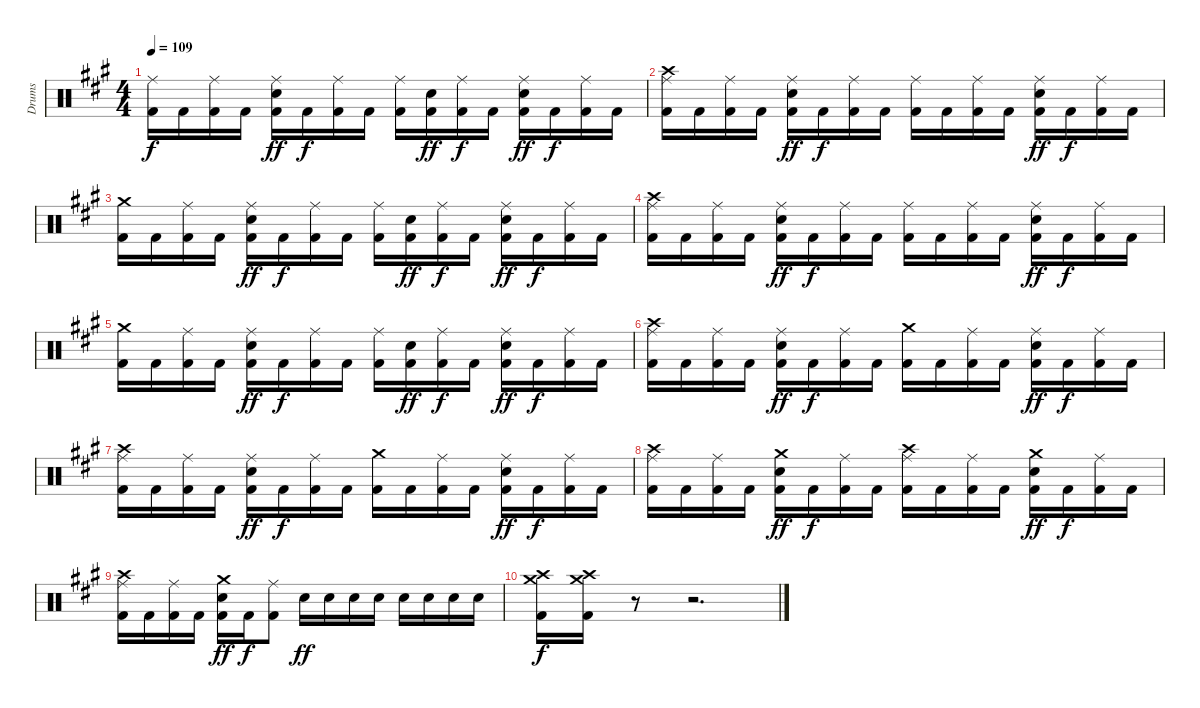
\track ("Drums" "Drums") {instrument percussion}
\staff {score}
\articulation defaults
\ts (4 4)
\tempo 109
\clef neutral
\ks f#minor
("Ride (middle)" "Kick (hit) 2").16{dy f} "Kick (hit) 2".16 ("Ride (middle)" "Kick (hit) 2").16 "Kick (hit) 2".16 ("Ride (middle)" "Electric Snare (hit)" "Kick (hit) 2").16{dy ff} "Kick (hit) 2".16{dy f} ("Ride (middle)" "Kick (hit) 2").16 "Kick (hit) 2".16 ("Ride (middle)" "Kick (hit) 2").16 ("Electric Snare (hit)" "Kick (hit) 2").16{dy ff} ("Ride (middle)" "Kick (hit) 2").16{dy f} "Kick (hit) 2".16 ("Ride (middle)" "Electric Snare (hit)" "Kick (hit) 2").16{dy ff} "Kick (hit) 2".16{dy f} ("Ride (middle)" "Kick (hit) 2").16 "Kick (hit) 2".16 |
("Ride (middle)" "Crash high (hit)" "Kick (hit) 2").16 "Kick (hit) 2".16 ("Ride (middle)" "Kick (hit) 2").16 "Kick (hit) 2".16 ("Ride (middle)" "Electric Snare (hit)" "Kick (hit) 2").16{dy ff} "Kick (hit) 2".16{dy f} ("Ride (middle)" "Kick (hit) 2").16 "Kick (hit) 2".16 ("Ride (middle)" "Kick (hit) 2").16 "Kick (hit) 2".16 ("Ride (middle)" "Kick (hit) 2").16 "Kick (hit) 2".16 ("Ride (middle)" "Electric Snare (hit)" "Kick (hit) 2").16{dy ff} "Kick (hit) 2".16{dy f} ("Ride (middle)" "Kick (hit) 2").16 "Kick (hit) 2".16 |
("Crash medium (hit)" "Kick (hit) 2").16 "Kick (hit) 2".16 ("Ride (middle)" "Kick (hit) 2").16 "Kick (hit) 2".16 ("Ride (middle)" "Electric Snare (hit)" "Kick (hit) 2").16{dy ff} "Kick (hit) 2".16{dy f} ("Ride (middle)" "Kick (hit) 2").16 "Kick (hit) 2".16 ("Ride (middle)" "Kick (hit) 2").16 ("Electric Snare (hit)" "Kick (hit) 2").16{dy ff} ("Ride (middle)" "Kick (hit) 2").16{dy f} "Kick (hit) 2".16 ("Ride (middle)" "Electric Snare (hit)" "Kick (hit) 2").16{dy ff} "Kick (hit) 2".16{dy f} ("Ride (middle)" "Kick (hit) 2").16 "Kick (hit) 2".16 |
("Ride (middle)" "Crash high (hit)" "Kick (hit) 2").16 "Kick (hit) 2".16 ("Ride (middle)" "Kick (hit) 2").16 "Kick (hit) 2".16 ("Ride (middle)" "Electric Snare (hit)" "Kick (hit) 2").16{dy ff} "Kick (hit) 2".16{dy f} ("Ride (middle)" "Kick (hit) 2").16 "Kick (hit) 2".16 ("Ride (middle)" "Kick (hit) 2").16 "Kick (hit) 2".16 ("Ride (middle)" "Kick (hit) 2").16 "Kick (hit) 2".16 ("Ride (middle)" "Electric Snare (hit)" "Kick (hit) 2").16{dy ff} "Kick (hit) 2".16{dy f} ("Ride (middle)" "Kick (hit) 2").16 "Kick (hit) 2".16 |
("Crash medium (hit)" "Kick (hit) 2").16 "Kick (hit) 2".16 ("Ride (middle)" "Kick (hit) 2").16 "Kick (hit) 2".16 ("Ride (middle)" "Electric Snare (hit)" "Kick (hit) 2").16{dy ff} "Kick (hit) 2".16{dy f} ("Ride (middle)" "Kick (hit) 2").16 "Kick (hit) 2".16 ("Ride (middle)" "Kick (hit) 2").16 ("Electric Snare (hit)" "Kick (hit) 2").16{dy ff} ("Ride (middle)" "Kick (hit) 2").16{dy f} "Kick (hit) 2".16 ("Ride (middle)" "Electric Snare (hit)" "Kick (hit) 2").16{dy ff} "Kick (hit) 2".16{dy f} ("Ride (middle)" "Kick (hit) 2").16 "Kick (hit) 2".16 |
("Ride (middle)" "Crash high (hit)" "Kick (hit) 2").16 "Kick (hit) 2".16 ("Ride (middle)" "Kick (hit) 2").16 "Kick (hit) 2".16 ("Ride (middle)" "Electric Snare (hit)" "Kick (hit) 2").16{dy ff} "Kick (hit) 2".16{dy f} ("Ride (middle)" "Kick (hit) 2").16 "Kick (hit) 2".16 ("Crash medium (hit)" "Kick (hit) 2").16 "Kick (hit) 2".16 ("Ride (middle)" "Kick (hit) 2").16 "Kick (hit) 2".16 ("Ride (middle)" "Electric Snare (hit)" "Kick (hit) 2").16{dy ff} "Kick (hit) 2".16{dy f} ("Ride (middle)" "Kick (hit) 2").16 "Kick (hit) 2".16 |
("Ride (middle)" "Crash high (hit)" "Kick (hit) 2").16 "Kick (hit) 2".16 ("Ride (middle)" "Kick (hit) 2").16 "Kick (hit) 2".16 ("Ride (middle)" "Electric Snare (hit)" "Kick (hit) 2").16{dy ff} "Kick (hit) 2".16{dy f} ("Ride (middle)" "Kick (hit) 2").16 "Kick (hit) 2".16 ("Crash medium (hit)" "Kick (hit) 2").16 "Kick (hit) 2".16 ("Ride (middle)" "Kick (hit) 2").16 "Kick (hit) 2".16 ("Ride (middle)" "Electric Snare (hit)" "Kick (hit) 2").16{dy ff} "Kick (hit) 2".16{dy f} ("Ride (middle)" "Kick (hit) 2").16 "Kick (hit) 2".16 |
("Ride (middle)" "Crash high (hit)" "Kick (hit) 2").16 "Kick (hit) 2".16 ("Ride (middle)" "Kick (hit) 2").16 "Kick (hit) 2".16 ("Crash medium (hit)" "Electric Snare (hit)" "Kick (hit) 2").16{dy ff} "Kick (hit) 2".16{dy f} ("Ride (middle)" "Kick (hit) 2").16 "Kick (hit) 2".16 ("Ride (middle)" "Crash high (hit)" "Kick (hit) 2").16 "Kick (hit) 2".16 ("Ride (middle)" "Kick (hit) 2").16 "Kick (hit) 2".16 ("Crash medium (hit)" "Electric Snare (hit)" "Kick (hit) 2").16{dy ff} "Kick (hit) 2".16{dy f} ("Ride (middle)" "Kick (hit) 2").16 "Kick (hit) 2".16 |
("Ride (middle)" "Crash high (hit)" "Kick (hit) 2").16 "Kick (hit) 2".16 ("Ride (middle)" "Kick (hit) 2").16 "Kick (hit) 2".16 ("Crash medium (hit)" "Electric Snare (hit)" "Kick (hit) 2").16{dy ff} "Kick (hit) 2".16{dy f} ("Ride (middle)" "Kick (hit) 2").8 "Electric Snare (hit)".16{dy ff} "Electric Snare (hit)".16 "Electric Snare (hit)".16 "Electric Snare (hit)".16 "Electric Snare (hit)".16 "Electric Snare (hit)".16 "Electric Snare (hit)".16 "Electric Snare (hit)".16 |
("Crash medium (hit)" "Crash high (hit)" "Kick (hit) 2").16{dy f} ("Crash medium (hit)" "Crash high (hit)" "Kick (hit) 2").16 r.8 r.2{d}
